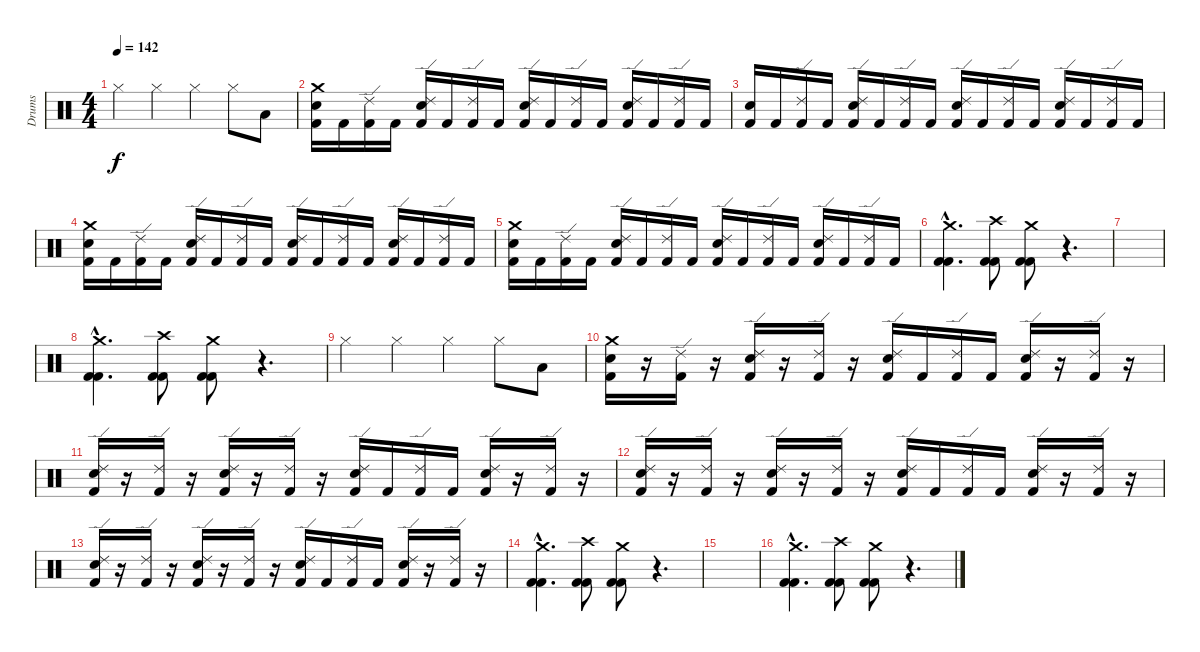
\track ("Drums" "Drums") {instrument percussion}
\staff {score}
\articulation defaults
\ts (4 4)
\tempo 142
\clef neutral
\ks c "Hi-Hat (closed)".4{dy f} "Hi-Hat (closed)".4 "Hi-Hat (closed)".4 "Hi-Hat (closed)".8 "Low Tom (hit)".8
|
("Kick (hit) 2" "Snare (hit) 2" "Crash medium (hit)").16 "Kick (hit) 2".16 ("Kick (hit) 2" "Ride (edge) 2").16 "Kick (hit) 2".16 ("Kick (hit) 2" "Ride (edge) 2" "Snare (hit) 2").16 "Kick (hit) 2".16 ("Kick (hit) 2" "Ride (edge) 2").16 "Kick (hit) 2".16 ("Kick (hit) 2" "Ride (edge) 2" "Snare (hit) 2").16 "Kick (hit) 2".16 ("Kick (hit) 2" "Ride (edge) 2").16 "Kick (hit) 2".16 ("Kick (hit) 2" "Ride (edge) 2" "Snare (hit) 2").16 "Kick (hit) 2".16 ("Kick (hit) 2" "Ride (edge) 2").16 "Kick (hit) 2".16 |
("Kick (hit) 2" "Snare (hit) 2").16 "Kick (hit) 2".16 ("Kick (hit) 2" "Ride (edge) 2").16 "Kick (hit) 2".16 ("Kick (hit) 2" "Ride (edge) 2" "Snare (hit) 2").16 "Kick (hit) 2".16 ("Kick (hit) 2" "Ride (edge) 2").16 "Kick (hit) 2".16 ("Kick (hit) 2" "Ride (edge) 2" "Snare (hit) 2").16 "Kick (hit) 2".16 ("Kick (hit) 2" "Ride (edge) 2").16 "Kick (hit) 2".16 ("Kick (hit) 2" "Ride (edge) 2" "Snare (hit) 2").16 "Kick (hit) 2".16 ("Kick (hit) 2" "Ride (edge) 2").16 "Kick (hit) 2".16 |
("Kick (hit) 2" "Snare (hit) 2" "Crash medium (hit)").16 "Kick (hit) 2".16 ("Kick (hit) 2" "Ride (edge) 2").16 "Kick (hit) 2".16 ("Kick (hit) 2" "Ride (edge) 2" "Snare (hit) 2").16 "Kick (hit) 2".16 ("Kick (hit) 2" "Ride (edge) 2").16 "Kick (hit) 2".16 ("Kick (hit) 2" "Ride (edge) 2" "Snare (hit) 2").16 "Kick (hit) 2".16 ("Kick (hit) 2" "Ride (edge) 2").16 "Kick (hit) 2".16 ("Kick (hit) 2" "Ride (edge) 2" "Snare (hit) 2").16 "Kick (hit) 2".16 ("Kick (hit) 2" "Ride (edge) 2").16 "Kick (hit) 2".16 |
("Kick (hit) 2" "Snare (hit) 2" "Crash medium (hit)").16 "Kick (hit) 2".16 ("Kick (hit) 2" "Ride (edge) 2").16 "Kick (hit) 2".16 ("Kick (hit) 2" "Ride (edge) 2" "Snare (hit) 2").16 "Kick (hit) 2".16 ("Kick (hit) 2" "Ride (edge) 2").16 "Kick (hit) 2".16 ("Kick (hit) 2" "Ride (edge) 2" "Snare (hit) 2").16 "Kick (hit) 2".16 ("Kick (hit) 2" "Ride (edge) 2").16 "Kick (hit) 2".16 ("Kick (hit) 2" "Ride (edge) 2" "Snare (hit) 2").16 "Kick (hit) 2".16 ("Kick (hit) 2" "Ride (edge) 2").16 "Kick (hit) 2".16 |
("Kick (hit) 2"{hac} "Kick (hit) 2"{hac} "Crash medium (hit)"{hac}).4{d} ("Kick (hit) 2" "Kick (hit) 2" "Crash high (hit)").8 ("Kick (hit) 2" "Kick (hit) 2" "Crash medium (hit)").8 r.4{d} |
|
("Kick (hit) 2"{hac} "Kick (hit) 2"{hac} "Crash medium (hit)"{hac}).4{d} ("Kick (hit) 2" "Kick (hit) 2" "Crash high (hit)").8 ("Kick (hit) 2" "Kick (hit) 2" "Crash medium (hit)").8 r.4{d} |
"Hi-Hat (closed)".4 "Hi-Hat (closed)".4 "Hi-Hat (closed)".4 "Hi-Hat (closed)".8 "Low Tom (hit)".8 |
("Kick (hit) 2" "Snare (hit) 2" "Crash medium (hit)").16 r.16 ("Kick (hit) 2" "Ride (edge) 2").16 r.16 ("Kick (hit) 2" "Ride (edge) 2" "Snare (hit) 2").16 r.16 ("Kick (hit) 2" "Ride (edge) 2").16 r.16 ("Kick (hit) 2" "Ride (edge) 2" "Snare (hit) 2").16 "Kick (hit) 2".16 ("Kick (hit) 2" "Ride (edge) 2").16 "Kick (hit) 2".16 ("Kick (hit) 2" "Ride (edge) 2" "Snare (hit) 2").16 r.16 ("Kick (hit) 2" "Ride (edge) 2").16 r.16 |
("Kick (hit) 2" "Snare (hit) 2" "Ride (edge) 2").16 r.16 ("Kick (hit) 2" "Ride (edge) 2").16 r.16 ("Kick (hit) 2" "Ride (edge) 2" "Snare (hit) 2").16 r.16 ("Kick (hit) 2" "Ride (edge) 2").16 r.16 ("Kick (hit) 2" "Ride (edge) 2" "Snare (hit) 2").16 "Kick (hit) 2".16 ("Kick (hit) 2" "Ride (edge) 2").16 "Kick (hit) 2".16 ("Kick (hit) 2" "Ride (edge) 2" "Snare (hit) 2").16 r.16 ("Kick (hit) 2" "Ride (edge) 2").16 r.16 |
("Kick (hit) 2" "Snare (hit) 2" "Ride (edge) 2").16 r.16 ("Kick (hit) 2" "Ride (edge) 2").16 r.16 ("Kick (hit) 2" "Ride (edge) 2" "Snare (hit) 2").16 r.16 ("Kick (hit) 2" "Ride (edge) 2").16 r.16 ("Kick (hit) 2" "Ride (edge) 2" "Snare (hit) 2").16 "Kick (hit) 2".16 ("Kick (hit) 2" "Ride (edge) 2").16 "Kick (hit) 2".16 ("Kick (hit) 2" "Ride (edge) 2" "Snare (hit) 2").16 r.16 ("Kick (hit) 2" "Ride (edge) 2").16 r.16 |
("Kick (hit) 2" "Snare (hit) 2" "Ride (edge) 2").16 r.16 ("Kick (hit) 2" "Ride (edge) 2").16 r.16 ("Kick (hit) 2" "Ride (edge) 2" "Snare (hit) 2").16 r.16 ("Kick (hit) 2" "Ride (edge) 2").16 r.16 ("Kick (hit) 2" "Ride (edge) 2" "Snare (hit) 2").16 "Kick (hit) 2".16 ("Kick (hit) 2" "Ride (edge) 2").16 "Kick (hit) 2".16 ("Kick (hit) 2" "Ride (edge) 2" "Snare (hit) 2").16 r.16 ("Kick (hit) 2" "Ride (edge) 2").16 r.16 |
("Kick (hit) 2"{hac} "Kick (hit) 2"{hac} "Crash medium (hit)"{hac}).4{d} ("Kick (hit) 2" "Kick (hit) 2" "Crash high (hit)").8 ("Kick (hit) 2" "Kick (hit) 2" "Crash medium (hit)").8 r.4{d} |
|
("Kick (hit) 2"{hac} "Kick (hit) 2"{hac} "Crash medium (hit)"{hac}).4{d} ("Kick (hit) 2" "Kick (hit) 2" "Crash high (hit)").8 ("Kick (hit) 2" "Kick (hit) 2" "Crash medium (hit)").8 r.4{d}
